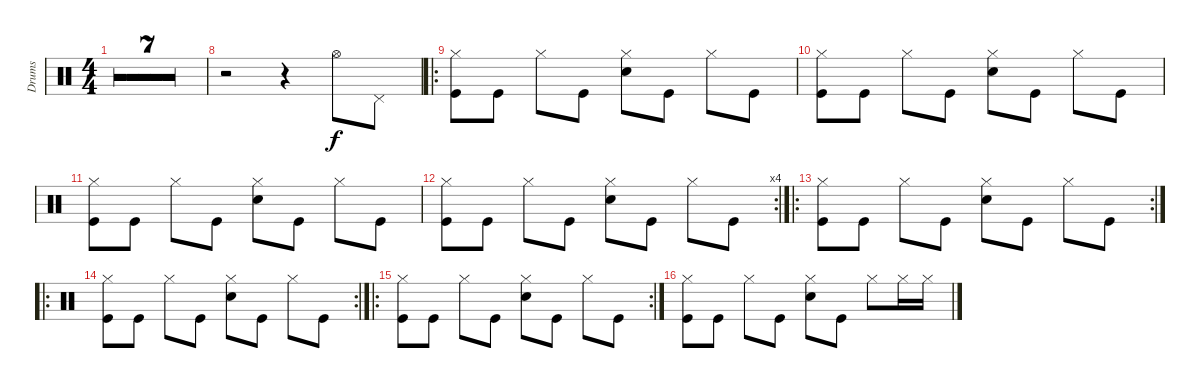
\bracketExtendMode groupsimilarinstruments
\otherSystemsTrackNameOrientation horizontal
\track ("Drumkit" "Drums") {multiBarRest instrument percussion}
\staff {score}
\articulation defaults
\ts (4 4)
\beaming (8 2 2 2 2)
\tempo 120
\clef neutral
\ks c
r.4{dy f} r.2{d} |
r.4 r.2{d} |
r.4 r.2{d} |
r.4 r.2{d} |
r.4 r.2{d} |
r.4 r.2{d} |
r.4 r.2{d} |
r.2 r.4 "Hi-Hat (open)".8 "Pedal Hi-Hat (hit)".8 |
\ro
("Hi-Hat (closed)" "Kick (hit)").8 "Kick (hit)".8 "Hi-Hat (closed)".8 "Kick (hit)".8 ("Hi-Hat (closed)" "Snare (hit) 2").8 "Kick (hit)".8 "Hi-Hat (closed)".8 "Kick (hit)".8 |
("Hi-Hat (closed)" "Kick (hit)").8 "Kick (hit)".8 "Hi-Hat (closed)".8 "Kick (hit)".8 ("Hi-Hat (closed)" "Snare (hit) 2").8 "Kick (hit)".8 "Hi-Hat (closed)".8 "Kick (hit)".8 |
("Hi-Hat (closed)" "Kick (hit)").8 "Kick (hit)".8 "Hi-Hat (closed)".8 "Kick (hit)".8 ("Hi-Hat (closed)" "Snare (hit) 2").8 "Kick (hit)".8 "Hi-Hat (closed)".8 "Kick (hit)".8 |
\rc 4
("Hi-Hat (closed)" "Kick (hit)").8 "Kick (hit)".8 "Hi-Hat (closed)".8 "Kick (hit)".8 ("Hi-Hat (closed)" "Snare (hit) 2").8 "Kick (hit)".8 "Hi-Hat (closed)".8 "Kick (hit)".8 |
\ro
\rc 2
("Hi-Hat (closed)" "Kick (hit)").8 "Kick (hit)".8 "Hi-Hat (closed)".8 "Kick (hit)".8 ("Hi-Hat (closed)" "Snare (hit) 2").8 "Kick (hit)".8 "Hi-Hat (closed)".8 "Kick (hit)".8 |
\ro
\rc 2
("Hi-Hat (closed)" "Kick (hit)").8 "Kick (hit)".8 "Hi-Hat (closed)".8 "Kick (hit)".8 ("Hi-Hat (closed)" "Snare (hit) 2").8 "Kick (hit)".8 "Hi-Hat (closed)".8 "Kick (hit)".8 |
\ro
\rc 2
("Hi-Hat (closed)" "Kick (hit)").8 "Kick (hit)".8 "Hi-Hat (closed)".8 "Kick (hit)".8 ("Hi-Hat (closed)" "Snare (hit) 2").8 "Kick (hit)".8 "Hi-Hat (closed)".8 "Kick (hit)".8 |
("Hi-Hat (closed)" "Kick (hit)").8 "Kick (hit)".8 "Hi-Hat (closed)".8 "Kick (hit)".8 ("Hi-Hat (closed)" "Snare (hit) 2").8 "Kick (hit)".8 "Hi-Hat (closed)".8 "Hi-Hat (closed)".16 "Hi-Hat (closed)".16
